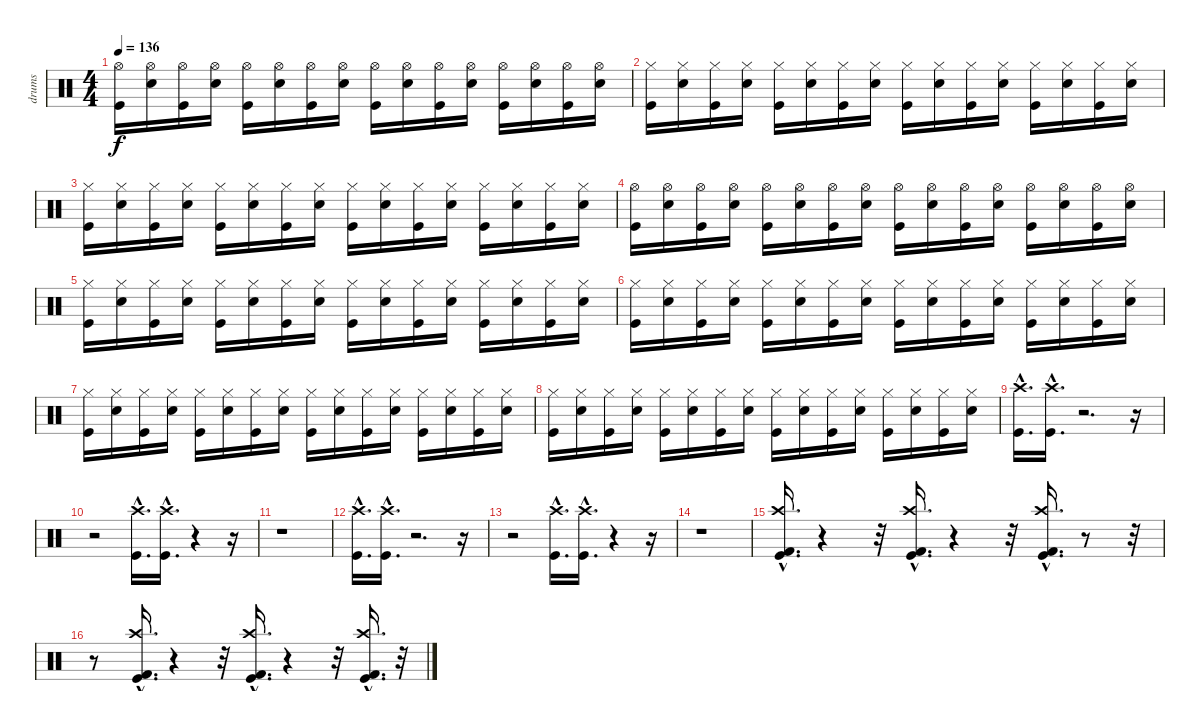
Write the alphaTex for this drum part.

\track ("drums" "drums") {instrument percussion}
\staff {score}
\articulation defaults
\ts (4 4)
\tempo 136
\clef neutral
\ks c
("Hi-Hat (open)" "Kick (hit)").16{dy f} ("Hi-Hat (open)" "Snare (hit) 2").16 ("Hi-Hat (open)" "Kick (hit)").16 ("Hi-Hat (open)" "Snare (hit) 2").16 ("Hi-Hat (open)" "Kick (hit)").16 ("Hi-Hat (open)" "Snare (hit) 2").16 ("Hi-Hat (open)" "Kick (hit)").16 ("Hi-Hat (open)" "Snare (hit) 2").16 ("Hi-Hat (open)" "Kick (hit)").16 ("Hi-Hat (open)" "Snare (hit) 2").16 ("Hi-Hat (open)" "Kick (hit)").16 ("Hi-Hat (open)" "Snare (hit) 2").16 ("Hi-Hat (open)" "Kick (hit)").16 ("Hi-Hat (open)" "Snare (hit) 2").16 ("Hi-Hat (open)" "Kick (hit)").16 ("Hi-Hat (open)" "Snare (hit) 2").16 |
("Hi-Hat (closed)" "Kick (hit)").16 ("Hi-Hat (closed)" "Snare (hit) 2").16 ("Hi-Hat (closed)" "Kick (hit)").16 ("Hi-Hat (closed)" "Snare (hit) 2").16 ("Hi-Hat (closed)" "Kick (hit)").16 ("Hi-Hat (closed)" "Snare (hit) 2").16 ("Hi-Hat (closed)" "Kick (hit)").16 ("Hi-Hat (closed)" "Snare (hit) 2").16 ("Hi-Hat (closed)" "Kick (hit)").16 ("Hi-Hat (closed)" "Snare (hit) 2").16 ("Hi-Hat (closed)" "Kick (hit)").16 ("Hi-Hat (closed)" "Snare (hit) 2").16 ("Hi-Hat (closed)" "Kick (hit)").16 ("Hi-Hat (closed)" "Snare (hit) 2").16 ("Hi-Hat (closed)" "Kick (hit)").16 ("Hi-Hat (closed)" "Snare (hit) 2").16 |
("Hi-Hat (closed)" "Kick (hit)").16 ("Hi-Hat (closed)" "Snare (hit) 2").16 ("Hi-Hat (closed)" "Kick (hit)").16 ("Hi-Hat (closed)" "Snare (hit) 2").16 ("Hi-Hat (closed)" "Kick (hit)").16 ("Hi-Hat (closed)" "Snare (hit) 2").16 ("Hi-Hat (closed)" "Kick (hit)").16 ("Hi-Hat (closed)" "Snare (hit) 2").16 ("Hi-Hat (closed)" "Kick (hit)").16 ("Hi-Hat (closed)" "Snare (hit) 2").16 ("Hi-Hat (closed)" "Kick (hit)").16 ("Hi-Hat (closed)" "Snare (hit) 2").16 ("Hi-Hat (closed)" "Kick (hit)").16 ("Hi-Hat (closed)" "Snare (hit) 2").16 ("Hi-Hat (closed)" "Kick (hit)").16 ("Hi-Hat (closed)" "Snare (hit) 2").16 |
("Hi-Hat (open)" "Kick (hit)").16 ("Hi-Hat (open)" "Snare (hit) 2").16 ("Hi-Hat (open)" "Kick (hit)").16 ("Hi-Hat (open)" "Snare (hit) 2").16 ("Hi-Hat (open)" "Kick (hit)").16 ("Hi-Hat (open)" "Snare (hit) 2").16 ("Hi-Hat (open)" "Kick (hit)").16 ("Hi-Hat (open)" "Snare (hit) 2").16 ("Hi-Hat (open)" "Kick (hit)").16 ("Hi-Hat (open)" "Snare (hit) 2").16 ("Hi-Hat (open)" "Kick (hit)").16 ("Hi-Hat (open)" "Snare (hit) 2").16 ("Hi-Hat (open)" "Kick (hit)").16 ("Hi-Hat (open)" "Snare (hit) 2").16 ("Hi-Hat (open)" "Kick (hit)").16 ("Hi-Hat (open)" "Snare (hit) 2").16 |
("Hi-Hat (closed)" "Kick (hit)").16 ("Hi-Hat (closed)" "Snare (hit) 2").16 ("Hi-Hat (closed)" "Kick (hit)").16 ("Hi-Hat (closed)" "Snare (hit) 2").16 ("Hi-Hat (closed)" "Kick (hit)").16 ("Hi-Hat (closed)" "Snare (hit) 2").16 ("Hi-Hat (closed)" "Kick (hit)").16 ("Hi-Hat (closed)" "Snare (hit) 2").16 ("Hi-Hat (closed)" "Kick (hit)").16 ("Hi-Hat (closed)" "Snare (hit) 2").16 ("Hi-Hat (closed)" "Kick (hit)").16 ("Hi-Hat (closed)" "Snare (hit) 2").16 ("Hi-Hat (closed)" "Kick (hit)").16 ("Hi-Hat (closed)" "Snare (hit) 2").16 ("Hi-Hat (closed)" "Kick (hit)").16 ("Hi-Hat (closed)" "Snare (hit) 2").16 |
("Hi-Hat (closed)" "Kick (hit)").16 ("Hi-Hat (closed)" "Snare (hit) 2").16 ("Hi-Hat (closed)" "Kick (hit)").16 ("Hi-Hat (closed)" "Snare (hit) 2").16 ("Hi-Hat (closed)" "Kick (hit)").16 ("Hi-Hat (closed)" "Snare (hit) 2").16 ("Hi-Hat (closed)" "Kick (hit)").16 ("Hi-Hat (closed)" "Snare (hit) 2").16 ("Hi-Hat (closed)" "Kick (hit)").16 ("Hi-Hat (closed)" "Snare (hit) 2").16 ("Hi-Hat (closed)" "Kick (hit)").16 ("Hi-Hat (closed)" "Snare (hit) 2").16 ("Hi-Hat (closed)" "Kick (hit)").16 ("Hi-Hat (closed)" "Snare (hit) 2").16 ("Hi-Hat (closed)" "Kick (hit)").16 ("Hi-Hat (closed)" "Snare (hit) 2").16 |
("Hi-Hat (closed)" "Kick (hit)").16 ("Hi-Hat (closed)" "Snare (hit) 2").16 ("Hi-Hat (closed)" "Kick (hit)").16 ("Hi-Hat (closed)" "Snare (hit) 2").16 ("Hi-Hat (closed)" "Kick (hit)").16 ("Hi-Hat (closed)" "Snare (hit) 2").16 ("Hi-Hat (closed)" "Kick (hit)").16 ("Hi-Hat (closed)" "Snare (hit) 2").16 ("Hi-Hat (closed)" "Kick (hit)").16 ("Hi-Hat (closed)" "Snare (hit) 2").16 ("Hi-Hat (closed)" "Kick (hit)").16 ("Hi-Hat (closed)" "Snare (hit) 2").16 ("Hi-Hat (closed)" "Kick (hit)").16 ("Hi-Hat (closed)" "Snare (hit) 2").16 ("Hi-Hat (closed)" "Kick (hit)").16 ("Hi-Hat (closed)" "Snare (hit) 2").16 |
("Hi-Hat (closed)" "Kick (hit)").16 ("Hi-Hat (closed)" "Snare (hit) 2").16 ("Hi-Hat (closed)" "Kick (hit)").16 ("Hi-Hat (closed)" "Snare (hit) 2").16 ("Hi-Hat (closed)" "Kick (hit)").16 ("Hi-Hat (closed)" "Snare (hit) 2").16 ("Hi-Hat (closed)" "Kick (hit)").16 ("Hi-Hat (closed)" "Snare (hit) 2").16 ("Hi-Hat (closed)" "Kick (hit)").16 ("Hi-Hat (closed)" "Snare (hit) 2").16 ("Hi-Hat (closed)" "Kick (hit)").16 ("Hi-Hat (closed)" "Snare (hit) 2").16 ("Hi-Hat (closed)" "Kick (hit)").16 ("Hi-Hat (closed)" "Snare (hit) 2").16 ("Hi-Hat (closed)" "Kick (hit)").16 ("Hi-Hat (closed)" "Snare (hit) 2").16 |
("Crash high (hit)"{hac} "Kick (hit)").16{d} ("Crash high (hit)"{hac} "Kick (hit)").16{d} r.2{d} r.16 |
r.2 ("Crash high (hit)"{hac} "Kick (hit)").16{d} ("Crash high (hit)"{hac} "Kick (hit)").16{d} r.4 r.16 |
r.1 |
("Crash high (hit)"{hac} "Kick (hit)").16{d} ("Crash high (hit)"{hac} "Kick (hit)").16{d} r.2{d} r.16 |
r.2 ("Crash high (hit)"{hac} "Kick (hit)").16{d} ("Crash high (hit)"{hac} "Kick (hit)").16{d} r.4 r.16 |
r.1 |
("Crash high (hit)"{hac} "Kick (hit) 2" "Kick (hit)").16{d} r.4 r.32 ("Kick (hit) 2" "Kick (hit)" "Crash high (hit)"{hac}).16{d} r.4 r.32 ("Crash high (hit)"{hac} "Kick (hit) 2" "Kick (hit)").16{d} r.8 r.32 |
r.8 ("Kick (hit) 2" "Kick (hit)" "Crash high (hit)"{hac}).16{d} r.4 r.32 ("Crash high (hit)"{hac} "Kick (hit) 2" "Kick (hit)").16{d} r.4 r.32 ("Kick (hit) 2" "Kick (hit)" "Crash high (hit)"{hac}).16{d} r.32
